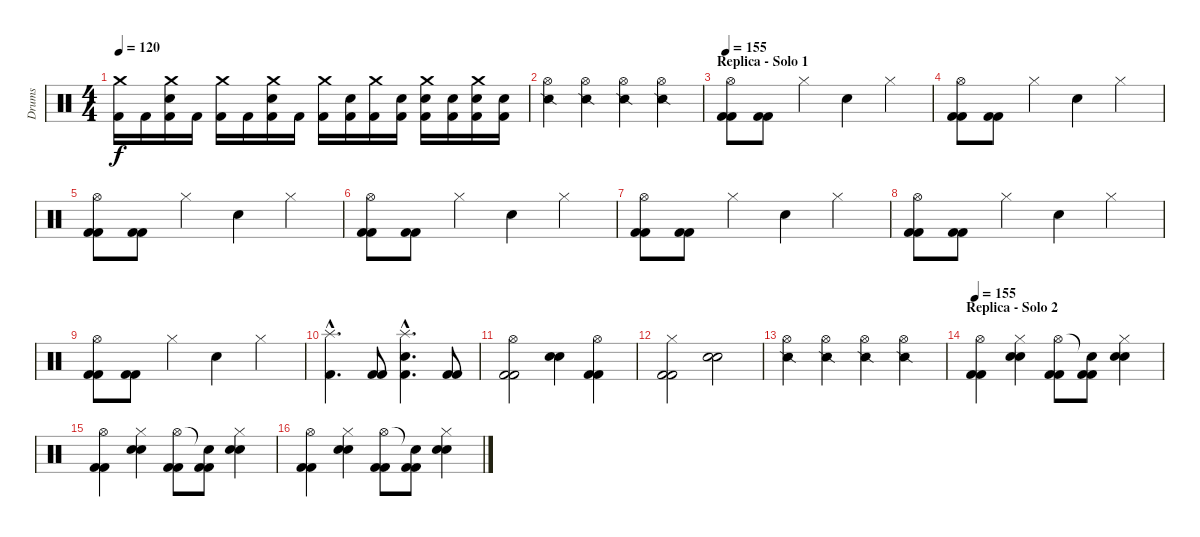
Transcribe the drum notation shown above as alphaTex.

\track ("Drums" "Drums") {instrument percussion}
\staff {score}
\articulation defaults
\ts (4 4)
\tempo 120
\clef neutral
\ks c
("Crash medium (hit)" "Kick (hit) 2").16{dy f} "Kick (hit) 2".16 ("Crash medium (hit)" "Kick (hit) 2" "Electric Snare (hit)").16 "Kick (hit) 2".16 ("Crash medium (hit)" "Kick (hit) 2").16 "Kick (hit) 2".16 ("Crash medium (hit)" "Kick (hit) 2" "Electric Snare (hit)").16 "Kick (hit) 2".16 ("Crash medium (hit)" "Kick (hit) 2").16 ("Kick (hit) 2" "Electric Snare (hit)").16 ("Crash medium (hit)" "Kick (hit) 2").16 ("Kick (hit) 2" "Electric Snare (hit)").16 ("Crash medium (hit)" "Kick (hit) 2" "Electric Snare (hit)").16 ("Kick (hit) 2" "Electric Snare (hit)").16 ("Crash medium (hit)" "Kick (hit) 2" "Electric Snare (hit)").16 ("Kick (hit) 2" "Electric Snare (hit)").16 |
("Snare (side stick) 2" "Hi-Hat (open)").4 ("Snare (side stick) 2" "Hi-Hat (open)").4 ("Snare (side stick) 2" "Hi-Hat (open)").4 ("Snare (side stick) 2" "Hi-Hat (open)").4 |
\section ("" "Replica - Solo 1")
\tempo 155
("Hi-Hat (open)" "Kick (hit) 2" "Kick (hit) 2").8 ("Kick (hit) 2" "Kick (hit) 2").8 "Hi-Hat (closed)".4 "Snare (hit) 2".4 "Hi-Hat (closed)".4 |
("Hi-Hat (open)" "Kick (hit) 2" "Kick (hit) 2").8 ("Kick (hit) 2" "Kick (hit) 2").8 "Hi-Hat (closed)".4 "Snare (hit) 2".4 "Hi-Hat (closed)".4 |
("Hi-Hat (open)" "Kick (hit) 2" "Kick (hit) 2").8 ("Kick (hit) 2" "Kick (hit) 2").8 "Hi-Hat (closed)".4 "Snare (hit) 2".4 "Hi-Hat (closed)".4 |
("Hi-Hat (open)" "Kick (hit) 2" "Kick (hit) 2").8 ("Kick (hit) 2" "Kick (hit) 2").8 "Hi-Hat (closed)".4 "Snare (hit) 2".4 "Hi-Hat (closed)".4 |
("Hi-Hat (open)" "Kick (hit) 2" "Kick (hit) 2").8 ("Kick (hit) 2" "Kick (hit) 2").8 "Hi-Hat (closed)".4 "Snare (hit) 2".4 "Hi-Hat (closed)".4 |
("Hi-Hat (open)" "Kick (hit) 2" "Kick (hit) 2").8 ("Kick (hit) 2" "Kick (hit) 2").8 "Hi-Hat (closed)".4 "Snare (hit) 2".4 "Hi-Hat (closed)".4 |
("Hi-Hat (open)" "Kick (hit) 2" "Kick (hit) 2").8 ("Kick (hit) 2" "Kick (hit) 2").8 "Hi-Hat (closed)".4 "Snare (hit) 2".4 "Hi-Hat (closed)".4 |
("Splash (hit)"{hac} "Kick (hit) 2"{hac}).4{d} ("Kick (hit) 2" "Kick (hit) 2").8 ("Splash (hit)"{hac} "Snare (hit) 2"{hac} "Kick (hit) 2"{hac}).4{d} ("Kick (hit) 2" "Kick (hit) 2").8 |
("Hi-Hat (open)" "Kick (hit) 2" "Kick (hit) 2").2 ("Snare (hit) 2" "Snare (hit) 2").4 ("Hi-Hat (open)" "Kick (hit) 2" "Kick (hit) 2").4 |
("Hi-Hat (closed)" "Kick (hit) 2" "Kick (hit) 2").2 ("Snare (hit) 2" "Snare (hit) 2").2 |
("Snare (side stick) 2" "Hi-Hat (open)").4 ("Snare (side stick) 2" "Hi-Hat (open)").4 ("Snare (side stick) 2" "Hi-Hat (open)").4 ("Snare (side stick) 2" "Hi-Hat (open)").4 |
\section ("" "Replica - Solo 2")
\tempo 155
("Hi-Hat (open)" "Kick (hit) 2" "Kick (hit) 2").4 ("Hi-Hat (closed)" "Snare (hit) 2" "Snare (hit) 2").4 ("Hi-Hat (open)" "Kick (hit) 2" "Kick (hit) 2").8 ("Snare (hit)"{t} "Kick (hit) 2" "Kick (hit) 2").8 ("Hi-Hat (closed)" "Snare (hit) 2" "Snare (hit) 2").4 |
("Hi-Hat (open)" "Kick (hit) 2" "Kick (hit) 2").4 ("Hi-Hat (closed)" "Snare (hit) 2" "Snare (hit) 2").4 ("Hi-Hat (open)" "Kick (hit) 2" "Kick (hit) 2").8 ("Snare (hit)"{t} "Kick (hit) 2" "Kick (hit) 2").8 ("Hi-Hat (closed)" "Snare (hit) 2" "Snare (hit) 2").4 |
("Hi-Hat (open)" "Kick (hit) 2" "Kick (hit) 2").4 ("Hi-Hat (closed)" "Snare (hit) 2" "Snare (hit) 2").4 ("Hi-Hat (open)" "Kick (hit) 2" "Kick (hit) 2").8 ("Snare (hit)"{t} "Kick (hit) 2" "Kick (hit) 2").8 ("Hi-Hat (closed)" "Snare (hit) 2" "Snare (hit) 2").4
